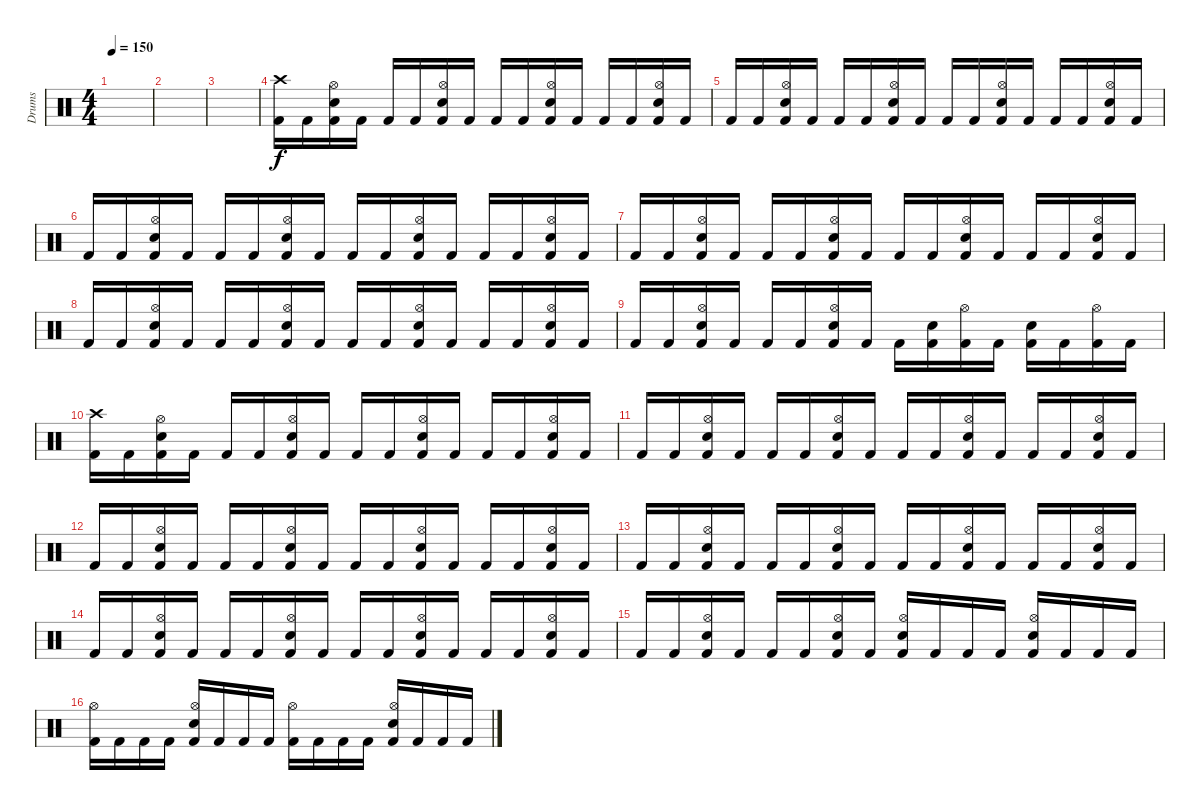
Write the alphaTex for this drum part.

\track ("Drums" "Drums") {instrument percussion}
\staff {score}
\articulation defaults
\ts (4 4)
\tempo 150
\clef neutral
\ks c
|
|
|
("Crash high (hit)" "Kick (hit) 2").16 "Kick (hit) 2".16 ("Hi-Hat (open)" "Snare (hit) 2" "Kick (hit) 2").16 "Kick (hit) 2".16 "Kick (hit) 2".16 "Kick (hit) 2".16 ("Hi-Hat (open)" "Snare (hit) 2" "Kick (hit) 2").16 "Kick (hit) 2".16 "Kick (hit) 2".16 "Kick (hit) 2".16 ("Hi-Hat (open)" "Snare (hit) 2" "Kick (hit) 2").16 "Kick (hit) 2".16 "Kick (hit) 2".16 "Kick (hit) 2".16 ("Hi-Hat (open)" "Snare (hit) 2" "Kick (hit) 2").16 "Kick (hit) 2".16 |
"Kick (hit) 2".16 "Kick (hit) 2".16 ("Hi-Hat (open)" "Snare (hit) 2" "Kick (hit) 2").16 "Kick (hit) 2".16 "Kick (hit) 2".16 "Kick (hit) 2".16 ("Hi-Hat (open)" "Snare (hit) 2" "Kick (hit) 2").16 "Kick (hit) 2".16 "Kick (hit) 2".16 "Kick (hit) 2".16 ("Hi-Hat (open)" "Snare (hit) 2" "Kick (hit) 2").16 "Kick (hit) 2".16 "Kick (hit) 2".16 "Kick (hit) 2".16 ("Hi-Hat (open)" "Snare (hit) 2" "Kick (hit) 2").16 "Kick (hit) 2".16 |
"Kick (hit) 2".16 "Kick (hit) 2".16 ("Hi-Hat (open)" "Snare (hit) 2" "Kick (hit) 2").16 "Kick (hit) 2".16 "Kick (hit) 2".16 "Kick (hit) 2".16 ("Hi-Hat (open)" "Snare (hit) 2" "Kick (hit) 2").16 "Kick (hit) 2".16 "Kick (hit) 2".16 "Kick (hit) 2".16 ("Hi-Hat (open)" "Snare (hit) 2" "Kick (hit) 2").16 "Kick (hit) 2".16 "Kick (hit) 2".16 "Kick (hit) 2".16 ("Hi-Hat (open)" "Snare (hit) 2" "Kick (hit) 2").16 "Kick (hit) 2".16 |
"Kick (hit) 2".16 "Kick (hit) 2".16 ("Hi-Hat (open)" "Snare (hit) 2" "Kick (hit) 2").16 "Kick (hit) 2".16 "Kick (hit) 2".16 "Kick (hit) 2".16 ("Hi-Hat (open)" "Snare (hit) 2" "Kick (hit) 2").16 "Kick (hit) 2".16 "Kick (hit) 2".16 "Kick (hit) 2".16 ("Hi-Hat (open)" "Snare (hit) 2" "Kick (hit) 2").16 "Kick (hit) 2".16 "Kick (hit) 2".16 "Kick (hit) 2".16 ("Hi-Hat (open)" "Snare (hit) 2" "Kick (hit) 2").16 "Kick (hit) 2".16 |
"Kick (hit) 2".16 "Kick (hit) 2".16 ("Hi-Hat (open)" "Snare (hit) 2" "Kick (hit) 2").16 "Kick (hit) 2".16 "Kick (hit) 2".16 "Kick (hit) 2".16 ("Hi-Hat (open)" "Snare (hit) 2" "Kick (hit) 2").16 "Kick (hit) 2".16 "Kick (hit) 2".16 "Kick (hit) 2".16 ("Hi-Hat (open)" "Snare (hit) 2" "Kick (hit) 2").16 "Kick (hit) 2".16 "Kick (hit) 2".16 "Kick (hit) 2".16 ("Hi-Hat (open)" "Snare (hit) 2" "Kick (hit) 2").16 "Kick (hit) 2".16 |
"Kick (hit) 2".16 "Kick (hit) 2".16 ("Hi-Hat (open)" "Snare (hit) 2" "Kick (hit) 2").16 "Kick (hit) 2".16 "Kick (hit) 2".16 "Kick (hit) 2".16 ("Hi-Hat (open)" "Snare (hit) 2" "Kick (hit) 2").16 "Kick (hit) 2".16 "Kick (hit) 2".16 ("Snare (hit) 2" "Kick (hit) 2").16 ("Hi-Hat (open)" "Kick (hit) 2").16 "Kick (hit) 2".16 ("Snare (hit) 2" "Kick (hit) 2").16 "Kick (hit) 2".16 ("Hi-Hat (open)" "Kick (hit) 2").16 "Kick (hit) 2".16 |
("Crash high (hit)" "Kick (hit) 2").16 "Kick (hit) 2".16 ("Hi-Hat (open)" "Snare (hit) 2" "Kick (hit) 2").16 "Kick (hit) 2".16 "Kick (hit) 2".16 "Kick (hit) 2".16 ("Hi-Hat (open)" "Snare (hit) 2" "Kick (hit) 2").16 "Kick (hit) 2".16 "Kick (hit) 2".16 "Kick (hit) 2".16 ("Hi-Hat (open)" "Snare (hit) 2" "Kick (hit) 2").16 "Kick (hit) 2".16 "Kick (hit) 2".16 "Kick (hit) 2".16 ("Hi-Hat (open)" "Snare (hit) 2" "Kick (hit) 2").16 "Kick (hit) 2".16 |
"Kick (hit) 2".16 "Kick (hit) 2".16 ("Hi-Hat (open)" "Snare (hit) 2" "Kick (hit) 2").16 "Kick (hit) 2".16 "Kick (hit) 2".16 "Kick (hit) 2".16 ("Hi-Hat (open)" "Snare (hit) 2" "Kick (hit) 2").16 "Kick (hit) 2".16 "Kick (hit) 2".16 "Kick (hit) 2".16 ("Hi-Hat (open)" "Snare (hit) 2" "Kick (hit) 2").16 "Kick (hit) 2".16 "Kick (hit) 2".16 "Kick (hit) 2".16 ("Hi-Hat (open)" "Snare (hit) 2" "Kick (hit) 2").16 "Kick (hit) 2".16 |
"Kick (hit) 2".16 "Kick (hit) 2".16 ("Hi-Hat (open)" "Snare (hit) 2" "Kick (hit) 2").16 "Kick (hit) 2".16 "Kick (hit) 2".16 "Kick (hit) 2".16 ("Hi-Hat (open)" "Snare (hit) 2" "Kick (hit) 2").16 "Kick (hit) 2".16 "Kick (hit) 2".16 "Kick (hit) 2".16 ("Hi-Hat (open)" "Snare (hit) 2" "Kick (hit) 2").16 "Kick (hit) 2".16 "Kick (hit) 2".16 "Kick (hit) 2".16 ("Hi-Hat (open)" "Snare (hit) 2" "Kick (hit) 2").16 "Kick (hit) 2".16 |
"Kick (hit) 2".16 "Kick (hit) 2".16 ("Hi-Hat (open)" "Snare (hit) 2" "Kick (hit) 2").16 "Kick (hit) 2".16 "Kick (hit) 2".16 "Kick (hit) 2".16 ("Hi-Hat (open)" "Snare (hit) 2" "Kick (hit) 2").16 "Kick (hit) 2".16 "Kick (hit) 2".16 "Kick (hit) 2".16 ("Hi-Hat (open)" "Snare (hit) 2" "Kick (hit) 2").16 "Kick (hit) 2".16 "Kick (hit) 2".16 "Kick (hit) 2".16 ("Hi-Hat (open)" "Snare (hit) 2" "Kick (hit) 2").16 "Kick (hit) 2".16 |
"Kick (hit) 2".16 "Kick (hit) 2".16 ("Hi-Hat (open)" "Snare (hit) 2" "Kick (hit) 2").16 "Kick (hit) 2".16 "Kick (hit) 2".16 "Kick (hit) 2".16 ("Hi-Hat (open)" "Snare (hit) 2" "Kick (hit) 2").16 "Kick (hit) 2".16 "Kick (hit) 2".16 "Kick (hit) 2".16 ("Hi-Hat (open)" "Snare (hit) 2" "Kick (hit) 2").16 "Kick (hit) 2".16 "Kick (hit) 2".16 "Kick (hit) 2".16 ("Hi-Hat (open)" "Snare (hit) 2" "Kick (hit) 2").16 "Kick (hit) 2".16 |
"Kick (hit) 2".16 "Kick (hit) 2".16 ("Hi-Hat (open)" "Snare (hit) 2" "Kick (hit) 2").16 "Kick (hit) 2".16 "Kick (hit) 2".16 "Kick (hit) 2".16 ("Hi-Hat (open)" "Snare (hit) 2" "Kick (hit) 2").16 "Kick (hit) 2".16 ("Hi-Hat (open)" "Snare (hit) 2" "Kick (hit) 2").16 "Kick (hit) 2".16 "Kick (hit) 2".16 "Kick (hit) 2".16 ("Hi-Hat (open)" "Snare (hit) 2" "Kick (hit) 2").16 "Kick (hit) 2".16 "Kick (hit) 2".16 "Kick (hit) 2".16 |
("Hi-Hat (open)" "Kick (hit) 2").16 "Kick (hit) 2".16 "Kick (hit) 2".16 "Kick (hit) 2".16 ("Hi-Hat (open)" "Snare (hit) 2" "Kick (hit) 2").16 "Kick (hit) 2".16 "Kick (hit) 2".16 "Kick (hit) 2".16 ("Hi-Hat (open)" "Kick (hit) 2").16 "Kick (hit) 2".16 "Kick (hit) 2".16 "Kick (hit) 2".16 ("Hi-Hat (open)" "Snare (hit) 2" "Kick (hit) 2").16 "Kick (hit) 2".16 "Kick (hit) 2".16 "Kick (hit) 2".16
